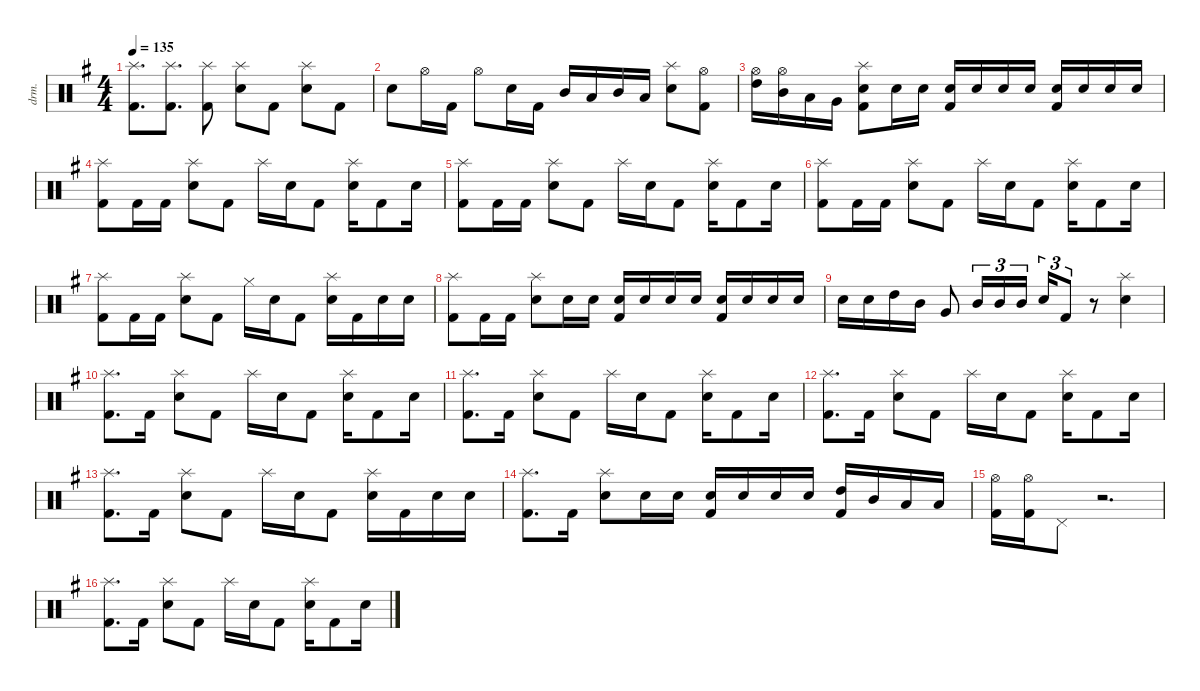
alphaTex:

\defaultSystemsLayout 4
\hideDynamics
\bracketExtendMode nobrackets
\track ("榧" "drm.") {instrument percussion}
\staff {score}
\articulation defaults
\ts (4 4)
\tempo 135
\clef neutral
\ks eminor
("Splash (hit)"{acc forcenatural} "Kick (hit) 2"{acc forcenatural}).8{d dy mf beam Down} ("Kick (hit) 2"{acc forcenatural} "Splash (hit)"{acc forcenatural}).8{d beam Down} ("Splash (hit)"{acc forcenatural} "Kick (hit) 2"{acc forcenatural}).8{beam Down} ("Snare (hit) 2"{acc forcenatural} "Splash (hit)"{acc forcenatural}).8{beam Down} "Kick (hit) 2"{acc forcenatural}.8{beam Down} ("Snare (hit) 2"{acc forcenatural} "Splash (hit)"{acc forcenatural}).8{beam Down} "Kick (hit) 2"{acc forcenatural}.8{beam Down} |
"Snare (hit) 2"{acc forcenatural}.8{beam Down} "Hi-Hat (open)"{acc forcenatural}.16{beam Down} "Kick (hit) 2"{acc forcenatural}.16{beam Down} "Hi-Hat (open)"{acc forcenatural}.8{beam Down} "Snare (hit) 2"{acc forcenatural}.16{beam Down} "Kick (hit) 2"{acc forcenatural}.16{beam Down} "Mid Tom (hit)"{acc forcenatural}.16{beam Up} "Low Tom (hit)"{acc forcenatural}.16{beam Up} "Mid Tom (hit)"{acc forcenatural}.16{beam Up} "Low Tom (hit)"{acc forcenatural}.16{beam Up} ("Snare (hit) 2"{acc forcenatural} "Splash (hit)"{acc forcenatural}).8{beam Down} ("Hi-Hat (open)"{acc forcenatural} "Kick (hit) 2"{acc forcenatural}).8{beam Down} |
("Hi-Hat (open)"{acc forcenatural} "High Tom (hit)"{acc forcenatural}).16{beam Down} ("Hi-Hat (open)"{acc forcenatural} "Mid Tom (hit)"{acc forcenatural}).16{beam Down} "Low Tom (hit)"{acc forcenatural}.16{beam Down} "Very Low Tom (hit)"{acc forcenatural}.16{beam Down} ("Kick (hit) 2"{acc forcenatural} "Splash (hit)"{acc forcenatural} "Snare (hit) 2"{acc forcenatural}).8{beam Down} "Snare (hit) 2"{acc forcenatural}.16{beam Down} "Snare (hit) 2"{acc forcenatural}.16{beam Down} ("Snare (hit) 2"{acc forcenatural} "Kick (hit) 2"{acc forcenatural}).16{beam Up} "Snare (hit) 2"{acc forcenatural}.16{beam Up} "Snare (hit) 2"{acc forcenatural}.16{beam Up} "Snare (hit) 2"{acc forcenatural}.16{beam Up} ("Snare (hit) 2"{acc forcenatural} "Kick (hit) 2"{acc forcenatural}).16{beam Up} "Snare (hit) 2"{acc forcenatural}.16{beam Up} "Snare (hit) 2"{acc forcenatural}.16{beam Up} "Snare (hit) 2"{acc forcenatural}.16{beam Up} |
("Splash (hit)"{acc forcenatural} "Kick (hit) 2"{acc forcenatural}).8{beam Down} "Kick (hit) 2"{acc forcenatural}.16{beam Down} "Kick (hit) 2"{acc forcenatural}.16{beam Down} ("Splash (hit)"{acc forcenatural} "Snare (hit) 2"{acc forcenatural}).8{beam Down} "Kick (hit) 2"{acc forcenatural}.8{beam Down} "Splash (hit)"{acc forcenatural}.16{beam Down} "Snare (hit) 2"{acc forcenatural}.16{beam Down} "Kick (hit) 2"{acc forcenatural}.8{beam Down} ("Snare (hit) 2"{acc forcenatural} "Splash (hit)"{acc forcenatural}).16{beam Down} "Kick (hit) 2"{acc forcenatural}.8{beam Down} "Snare (hit) 2"{acc forcenatural}.16{beam Down} |
("Splash (hit)"{acc forcenatural} "Kick (hit) 2"{acc forcenatural}).8{beam Down} "Kick (hit) 2"{acc forcenatural}.16{beam Down} "Kick (hit) 2"{acc forcenatural}.16{beam Down} ("Splash (hit)"{acc forcenatural} "Snare (hit) 2"{acc forcenatural}).8{beam Down} "Kick (hit) 2"{acc forcenatural}.8{beam Down} "Splash (hit)"{acc forcenatural}.16{beam Down} "Snare (hit) 2"{acc forcenatural}.16{beam Down} "Kick (hit) 2"{acc forcenatural}.8{beam Down} ("Snare (hit) 2"{acc forcenatural} "Splash (hit)"{acc forcenatural}).16{beam Down} "Kick (hit) 2"{acc forcenatural}.8{beam Down} "Snare (hit) 2"{acc forcenatural}.16{beam Down} |
("Splash (hit)"{acc forcenatural} "Kick (hit) 2"{acc forcenatural}).8{beam Down} "Kick (hit) 2"{acc forcenatural}.16{beam Down} "Kick (hit) 2"{acc forcenatural}.16{beam Down} ("Splash (hit)"{acc forcenatural} "Snare (hit) 2"{acc forcenatural}).8{beam Down} "Kick (hit) 2"{acc forcenatural}.8{beam Down} "Splash (hit)"{acc forcenatural}.16{beam Down} "Snare (hit) 2"{acc forcenatural}.16{beam Down} "Kick (hit) 2"{acc forcenatural}.8{beam Down} ("Snare (hit) 2"{acc forcenatural} "Splash (hit)"{acc forcenatural}).16{beam Down} "Kick (hit) 2"{acc forcenatural}.8{beam Down} "Snare (hit) 2"{acc forcenatural}.16{beam Down} |
("Kick (hit) 2"{acc forcenatural} "Splash (hit)"{acc forcenatural}).8{beam Down} "Kick (hit) 2"{acc forcenatural}.16{beam Down} "Kick (hit) 2"{acc forcenatural}.16{beam Down} ("Splash (hit)"{acc forcenatural} "Snare (hit) 2"{acc forcenatural}).8{beam Down} "Kick (hit) 2"{acc forcenatural}.8{beam Down} "Hi-Hat (closed)"{acc forcenatural}.16{beam Down} "Snare (hit) 2"{acc forcenatural}.16{beam Down} "Kick (hit) 2"{acc forcenatural}.8{beam Down} ("Splash (hit)"{acc forcenatural} "Snare (hit) 2"{acc forcenatural}).16{beam Down} "Kick (hit) 2"{acc forcenatural}.16{beam Down} "Snare (hit) 2"{acc forcenatural}.16{beam Down} "Snare (hit) 2"{acc forcenatural}.16{beam Down} |
("Kick (hit) 2"{acc forcenatural} "Splash (hit)"{acc forcenatural}).8{beam Down} "Kick (hit) 2"{acc forcenatural}.16{beam Down} "Kick (hit) 2"{acc forcenatural}.16{beam Down} ("Splash (hit)"{acc forcenatural} "Snare (hit) 2"{acc forcenatural}).8{beam Down} "Snare (hit) 2"{acc forcenatural}.16{beam Down} "Snare (hit) 2"{acc forcenatural}.16{beam Down} ("Snare (hit) 2"{acc forcenatural} "Kick (hit) 2"{acc forcenatural}).16{beam Up} "Snare (hit) 2"{acc forcenatural}.16{beam Up} "Snare (hit) 2"{acc forcenatural}.16{beam Up} "Snare (hit) 2"{acc forcenatural}.16{beam Up} ("Snare (hit) 2"{acc forcenatural} "Kick (hit) 2"{acc forcenatural}).16{beam Up} "Snare (hit) 2"{acc forcenatural}.16{beam Up} "Snare (hit) 2"{acc forcenatural}.16{beam Up} "Snare (hit) 2"{acc forcenatural}.16{beam Up} |
"Snare (hit) 2"{acc forcenatural}.16{beam Down} "Snare (hit) 2"{acc forcenatural}.16{beam Down} "High Tom (hit)"{acc forcenatural}.16{beam Down} "Mid Tom (hit)"{acc forcenatural}.16{beam Down} "Very Low Tom (hit)"{acc forcenatural}.8{beam Up} "Mid Tom (hit)"{acc forcenatural}.16{tu (3 2) beam Up} "Mid Tom (hit)"{acc forcenatural}.16{tu (3 2) beam Up} "Mid Tom (hit)"{acc forcenatural}.16{tu (3 2) beam Up} "Snare (hit) 2"{acc forcenatural}.16{tu (3 2) beam Up} "Kick (hit) 2"{acc forcenatural}.8{tu (3 2) beam Up} r.8{beam Down} ("Splash (hit)"{acc forcenatural} "Snare (hit) 2"{acc forcenatural}).4{beam Down} |
("Splash (hit)"{acc forcenatural} "Kick (hit) 2"{acc forcenatural}).8{d beam Down} "Kick (hit) 2"{acc forcenatural}.16{beam Down} ("Snare (hit) 2"{acc forcenatural} "Splash (hit)"{acc forcenatural}).8{beam Down} "Kick (hit) 2"{acc forcenatural}.8{beam Down} "Splash (hit)"{acc forcenatural}.16{beam Down} "Snare (hit) 2"{acc forcenatural}.16{beam Down} "Kick (hit) 2"{acc forcenatural}.8{beam Down} ("Splash (hit)"{acc forcenatural} "Snare (hit) 2"{acc forcenatural}).16{beam Down} "Kick (hit) 2"{acc forcenatural}.8{beam Down} "Snare (hit) 2"{acc forcenatural}.16{beam Down} |
("Splash (hit)"{acc forcenatural} "Kick (hit) 2"{acc forcenatural}).8{d beam Down} "Kick (hit) 2"{acc forcenatural}.16{beam Down} ("Snare (hit) 2"{acc forcenatural} "Splash (hit)"{acc forcenatural}).8{beam Down} "Kick (hit) 2"{acc forcenatural}.8{beam Down} "Splash (hit)"{acc forcenatural}.16{beam Down} "Snare (hit) 2"{acc forcenatural}.16{beam Down} "Kick (hit) 2"{acc forcenatural}.8{beam Down} ("Splash (hit)"{acc forcenatural} "Snare (hit) 2"{acc forcenatural}).16{beam Down} "Kick (hit) 2"{acc forcenatural}.8{beam Down} "Snare (hit) 2"{acc forcenatural}.16{beam Down} |
("Splash (hit)"{acc forcenatural} "Kick (hit) 2"{acc forcenatural}).8{d beam Down} "Kick (hit) 2"{acc forcenatural}.16{beam Down} ("Snare (hit) 2"{acc forcenatural} "Splash (hit)"{acc forcenatural}).8{beam Down} "Kick (hit) 2"{acc forcenatural}.8{beam Down} "Splash (hit)"{acc forcenatural}.16{beam Down} "Snare (hit) 2"{acc forcenatural}.16{beam Down} "Kick (hit) 2"{acc forcenatural}.8{beam Down} ("Splash (hit)"{acc forcenatural} "Snare (hit) 2"{acc forcenatural}).16{beam Down} "Kick (hit) 2"{acc forcenatural}.8{beam Down} "Snare (hit) 2"{acc forcenatural}.16{beam Down} |
("Splash (hit)"{acc forcenatural} "Kick (hit) 2"{acc forcenatural}).8{d beam Down} "Kick (hit) 2"{acc forcenatural}.16{beam Down} ("Snare (hit) 2"{acc forcenatural} "Splash (hit)"{acc forcenatural}).8{beam Down} "Kick (hit) 2"{acc forcenatural}.8{beam Down} "Splash (hit)"{acc forcenatural}.16{beam Down} "Snare (hit) 2"{acc forcenatural}.16{beam Down} "Kick (hit) 2"{acc forcenatural}.8{beam Down} ("Splash (hit)"{acc forcenatural} "Snare (hit) 2"{acc forcenatural}).16{beam Down} "Kick (hit) 2"{acc forcenatural}.16{beam Down} "Snare (hit) 2"{acc forcenatural}.16{beam Down} "Snare (hit) 2"{acc forcenatural}.16{beam Down} |
("Splash (hit)"{acc forcenatural} "Kick (hit) 2"{acc forcenatural}).8{d beam Down} "Kick (hit) 2"{acc forcenatural}.16{beam Down} ("Splash (hit)"{acc forcenatural} "Snare (hit) 2"{acc forcenatural}).8{beam Down} "Snare (hit) 2"{acc forcenatural}.16{beam Down} "Snare (hit) 2"{acc forcenatural}.16{beam Down} ("Snare (hit) 2"{acc forcenatural} "Kick (hit) 2"{acc forcenatural}).16{beam Up} "Snare (hit) 2"{acc forcenatural}.16{beam Up} "Snare (hit) 2"{acc forcenatural}.16{beam Up} "Snare (hit) 2"{acc forcenatural}.16{beam Up} ("Kick (hit) 2"{acc forcenatural} "High Tom (hit)"{acc forcenatural}).16{beam Up} "Mid Tom (hit)"{acc forcenatural}.16{beam Up} "Low Tom (hit)"{acc forcenatural}.16{beam Up} "Low Tom (hit)"{acc forcenatural}.16{beam Up} |
("Kick (hit) 2"{acc forcenatural} "Hi-Hat (open)"{acc forcenatural}).16{beam Down} ("Kick (hit) 2"{acc forcenatural} "Hi-Hat (open)"{acc forcenatural}).16{beam Down} "Pedal Hi-Hat (hit)"{acc forcenatural}.8{beam Down} r.2{d beam Down} |
("Splash (hit)"{acc forcenatural} "Kick (hit) 2"{acc forcenatural}).8{d beam Down} "Kick (hit) 2"{acc forcenatural}.16{beam Down} ("Snare (hit) 2"{acc forcenatural} "Splash (hit)"{acc forcenatural}).8{beam Down} "Kick (hit) 2"{acc forcenatural}.8{beam Down} "Splash (hit)"{acc forcenatural}.16{beam Down} "Snare (hit) 2"{acc forcenatural}.16{beam Down} "Kick (hit) 2"{acc forcenatural}.8{beam Down} ("Splash (hit)"{acc forcenatural} "Snare (hit) 2"{acc forcenatural}).16{beam Down} "Kick (hit) 2"{acc forcenatural}.8{beam Down} "Snare (hit) 2"{acc forcenatural}.16{beam Down}
